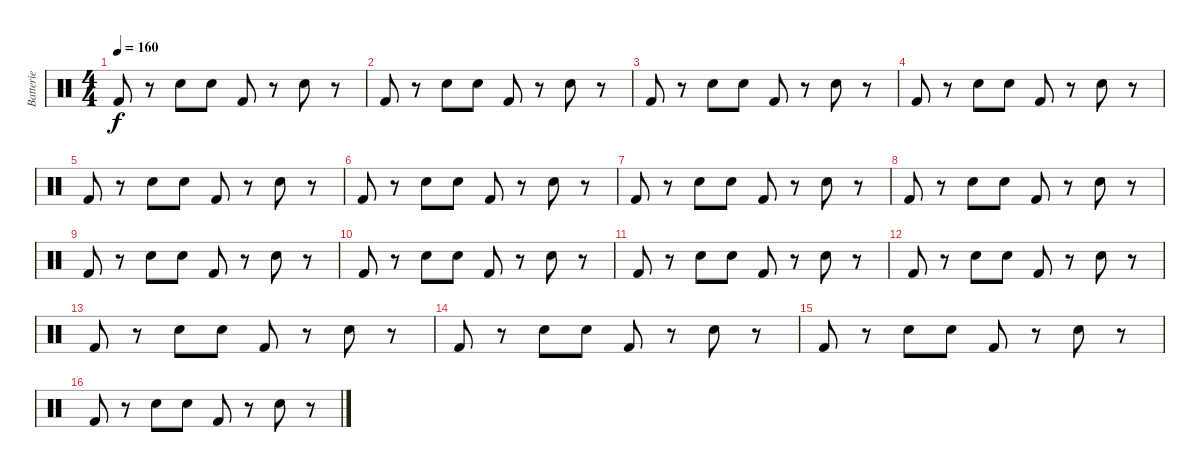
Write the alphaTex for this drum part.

\track ("Batterie" "Batterie") {instrument percussion}
\staff {score}
\articulation defaults
\ts (4 4)
\tempo 160
\clef neutral
\ks c "Kick (hit) 2".8{dy f}
r.8 "Snare (hit) 2".8 "Snare (hit) 2".8 "Kick (hit) 2".8 r.8 "Snare (hit) 2".8 r.8 |
"Kick (hit) 2".8 r.8 "Snare (hit) 2".8 "Snare (hit) 2".8 "Kick (hit) 2".8 r.8 "Snare (hit) 2".8 r.8 |
"Kick (hit) 2".8 r.8 "Snare (hit) 2".8 "Snare (hit) 2".8 "Kick (hit) 2".8 r.8 "Snare (hit) 2".8 r.8 |
"Kick (hit) 2".8 r.8 "Snare (hit) 2".8 "Snare (hit) 2".8 "Kick (hit) 2".8 r.8 "Snare (hit) 2".8 r.8 |
"Kick (hit) 2".8 r.8 "Snare (hit) 2".8 "Snare (hit) 2".8 "Kick (hit) 2".8 r.8 "Snare (hit) 2".8 r.8 |
"Kick (hit) 2".8 r.8 "Snare (hit) 2".8 "Snare (hit) 2".8 "Kick (hit) 2".8 r.8 "Snare (hit) 2".8 r.8 |
"Kick (hit) 2".8 r.8 "Snare (hit) 2".8 "Snare (hit) 2".8 "Kick (hit) 2".8 r.8 "Snare (hit) 2".8 r.8 |
"Kick (hit) 2".8 r.8 "Snare (hit) 2".8 "Snare (hit) 2".8 "Kick (hit) 2".8 r.8 "Snare (hit) 2".8 r.8 |
"Kick (hit) 2".8 r.8 "Snare (hit) 2".8 "Snare (hit) 2".8 "Kick (hit) 2".8 r.8 "Snare (hit) 2".8 r.8 |
"Kick (hit) 2".8 r.8 "Snare (hit) 2".8 "Snare (hit) 2".8 "Kick (hit) 2".8 r.8 "Snare (hit) 2".8 r.8 |
"Kick (hit) 2".8 r.8 "Snare (hit) 2".8 "Snare (hit) 2".8 "Kick (hit) 2".8 r.8 "Snare (hit) 2".8 r.8 |
"Kick (hit) 2".8 r.8 "Snare (hit) 2".8 "Snare (hit) 2".8 "Kick (hit) 2".8 r.8 "Snare (hit) 2".8 r.8 |
"Kick (hit) 2".8 r.8 "Snare (hit) 2".8 "Snare (hit) 2".8 "Kick (hit) 2".8 r.8 "Snare (hit) 2".8 r.8 |
"Kick (hit) 2".8 r.8 "Snare (hit) 2".8 "Snare (hit) 2".8 "Kick (hit) 2".8 r.8 "Snare (hit) 2".8 r.8 |
"Kick (hit) 2".8 r.8 "Snare (hit) 2".8 "Snare (hit) 2".8 "Kick (hit) 2".8 r.8 "Snare (hit) 2".8 r.8 |
"Kick (hit) 2".8 r.8 "Snare (hit) 2".8 "Snare (hit) 2".8 "Kick (hit) 2".8 r.8 "Snare (hit) 2".8 r.8
